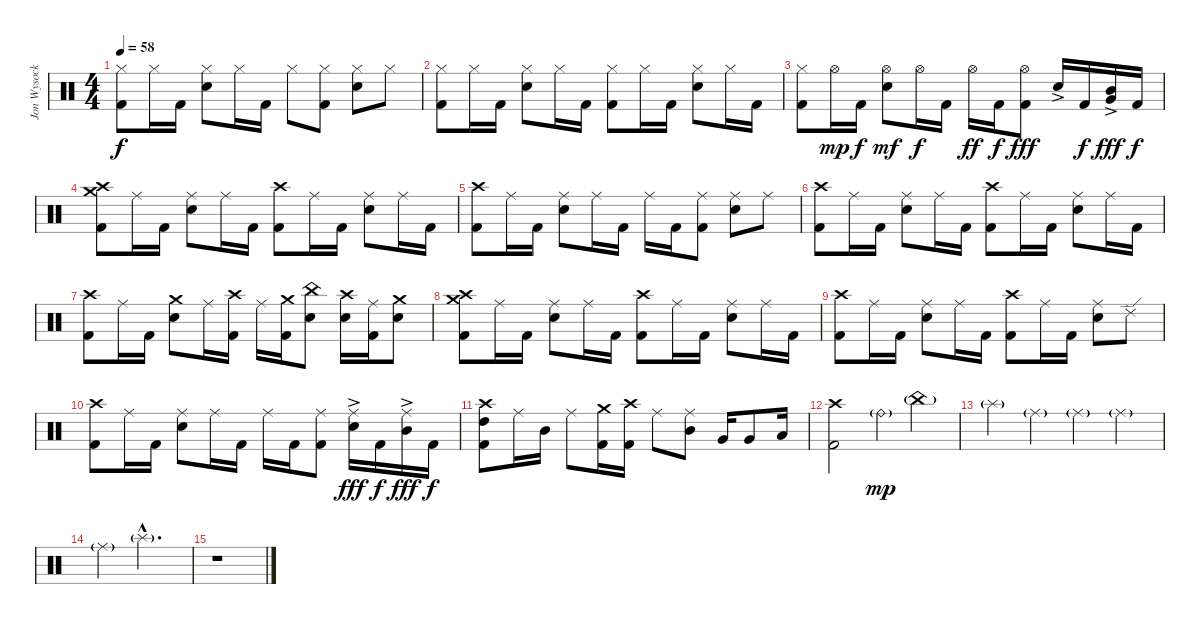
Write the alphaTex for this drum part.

\track ("Jon Wysocki  (Drums)" "Jon Wysock") {instrument percussion}
\staff {score}
\articulation defaults
\ts (4 4)
\tempo 58
\clef neutral
\ks c
("Hi-Hat (closed)" "Kick (hit) 2").8{dy f} "Hi-Hat (closed)".16 "Kick (hit) 2".16 ("Hi-Hat (closed)" "Electric Snare (hit)").8 "Hi-Hat (closed)".16 "Kick (hit) 2".16 "Hi-Hat (closed)".8 ("Hi-Hat (closed)" "Kick (hit) 2").8 ("Hi-Hat (closed)" "Electric Snare (hit)").8 "Hi-Hat (closed)".8 |
("Hi-Hat (closed)" "Kick (hit) 2").8 "Hi-Hat (closed)".16 "Kick (hit) 2".16 ("Hi-Hat (closed)" "Electric Snare (hit)").8 "Hi-Hat (closed)".16 "Kick (hit) 2".16 ("Hi-Hat (closed)" "Kick (hit) 2").8 "Hi-Hat (closed)".16 "Kick (hit) 2".16 ("Hi-Hat (closed)" "Electric Snare (hit)").8 "Hi-Hat (closed)".16 "Kick (hit) 2".16 |
("Hi-Hat (closed)" "Kick (hit) 2").8 "Hi-Hat (open)".16{dy mp} "Kick (hit) 2".16{dy f} ("Hi-Hat (open)" "Electric Snare (hit)").8{dy mf} "Hi-Hat (open)".16{dy f} "Kick (hit) 2".16 "Hi-Hat (open)".16{dy ff} "Kick (hit) 2".16{dy f} ("Hi-Hat (open)" "Kick (hit) 2").8{dy fff} "Electric Snare (hit)"{ac}.16 "Kick (hit) 2".16{dy f} ("Mid Tom (hit)"{ac} "Very Low Tom (hit)").16{dy fff} "Kick (hit) 2".16{dy f} |
("Crash high (hit)" "Crash medium (hit)" "Kick (hit) 2").8 "Ride (middle)".16 "Kick (hit) 2".16 ("Ride (middle)" "Electric Snare (hit)").8 "Ride (middle)".16 "Kick (hit) 2".16 ("Crash high (hit)" "Kick (hit) 2").8 "Ride (middle)".16 "Kick (hit) 2".16 ("Ride (middle)" "Electric Snare (hit)").8 "Ride (middle)".16 "Kick (hit) 2".16 |
("Crash high (hit)" "Kick (hit) 2").8 "Ride (middle)".16 "Kick (hit) 2".16 ("Ride (middle)" "Electric Snare (hit)").8 "Ride (middle)".16 "Kick (hit) 2".16 "Ride (middle)".16 "Kick (hit) 2".16 ("Ride (middle)" "Kick (hit) 2").8 ("Ride (middle)" "Electric Snare (hit)").8 "Ride (middle)".8 |
("Crash high (hit)" "Kick (hit) 2").8 "Ride (middle)".16 "Kick (hit) 2".16 ("Ride (middle)" "Electric Snare (hit)").8 "Ride (middle)".16 "Kick (hit) 2".16 ("Crash high (hit)" "Kick (hit) 2").8 "Ride (middle)".16 "Kick (hit) 2".16 ("Ride (middle)" "Electric Snare (hit)").8 "Ride (middle)".16 "Kick (hit) 2".16 |
("Crash high (hit)" "Kick (hit) 2").8 "Ride (middle)".16 "Kick (hit) 2".16 ("Crash medium (hit)" "Electric Snare (hit)").8 "Ride (middle)".16 ("Crash high (hit)" "Kick (hit) 2").16 "Ride (middle)".16 ("Crash medium (hit)" "Kick (hit) 2").16 ("China (hit)" "Electric Snare (hit)").8 ("Crash high (hit)" "Electric Snare (hit)").16 ("Ride (middle)" "Kick (hit) 2").16 ("Crash medium (hit)" "Electric Snare (hit)").8 |
("Crash high (hit)" "Crash medium (hit)" "Kick (hit) 2").8 "Ride (middle)".16 "Kick (hit) 2".16 ("Ride (middle)" "Electric Snare (hit)").8 "Ride (middle)".16 "Kick (hit) 2".16 ("Crash high (hit)" "Kick (hit) 2").8 "Ride (middle)".16 "Kick (hit) 2".16 ("Ride (middle)" "Electric Snare (hit)").8 "Ride (middle)".16 "Kick (hit) 2".16 |
("Crash high (hit)" "Kick (hit) 2").8 "Ride (middle)".16 "Kick (hit) 2".16 ("Ride (middle)" "Electric Snare (hit)").8 "Ride (middle)".16 "Kick (hit) 2".16 ("Crash high (hit)" "Kick (hit) 2").8 "Ride (middle)".16 "Kick (hit) 2".16 ("Ride (middle)" "Electric Snare (hit)").8 "Ride (edge) 2".8 |
("Crash high (hit)" "Kick (hit) 2").8 "Ride (middle)".16 "Kick (hit) 2".16 ("Ride (middle)" "Electric Snare (hit)").8 "Ride (middle)".16 "Kick (hit) 2".16 "Ride (middle)".16 "Kick (hit) 2".16 ("Ride (middle)" "Kick (hit) 2").8 ("Ride (middle)" "Electric Snare (hit)"{ac}).16{dy fff} "Kick (hit) 2".16{dy f} ("Ride (middle)" "Mid Tom (hit)"{ac}).16{dy fff} "Kick (hit) 2".16{dy f} |
("Crash high (hit)" "High Tom (hit)" "Kick (hit) 2").8 "Ride (middle)".16 "Mid Tom (hit)".16 "Ride (middle)".8 ("Crash medium (hit)" "Kick (hit) 2").16 ("Crash high (hit)" "Kick (hit) 2").16 "Ride (middle)".8 ("Ride (middle)" "Mid Tom (hit)").8 "Very Low Tom (hit)".16 "Very Low Tom (hit)".8 "Low Floor Tom (hit)".16 |
("Crash high (hit)" "Kick (hit) 2").2 "Ride (bell)"{g}.4{dy mp} "China (hit)"{g}.4 |
"Splash (hit)"{g}.4 "Ride (middle)"{g}.4 "Ride (middle)"{g}.4 "Ride (middle)"{g}.4 |
"Ride (middle)"{g}.4 "Splash (hit)"{g hac}.2{d} |
r.1
